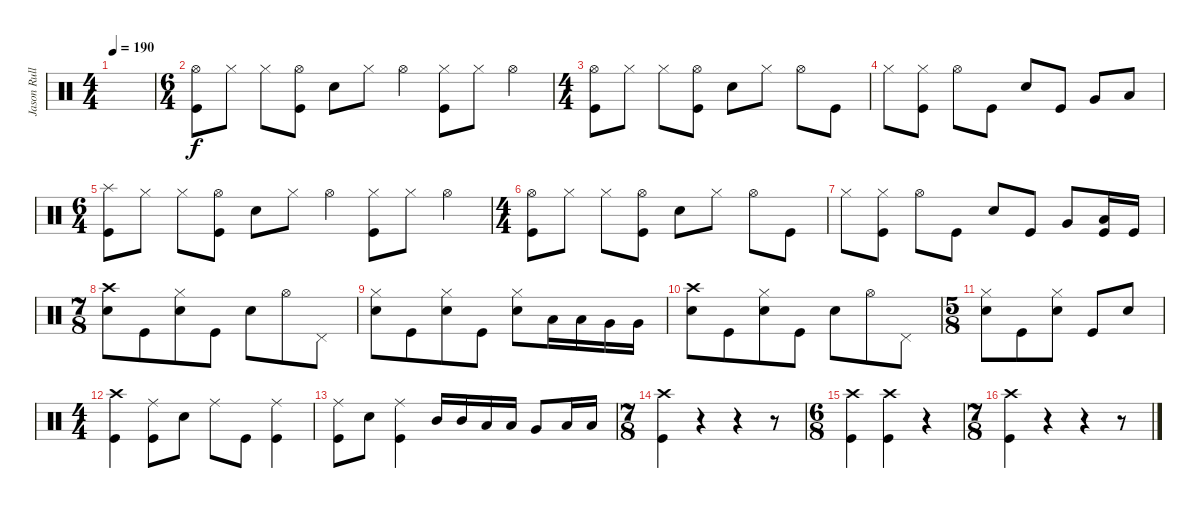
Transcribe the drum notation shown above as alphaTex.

\track ("Jason Rullo - Drums and Percussion" "Jason Rull") {instrument percussion}
\staff {score}
\articulation defaults
\ts (4 4)
\tempo 190
\clef neutral
\ks c
|
\ts (6 4)
("Hi-Hat (open)" "Kick (hit)").8 "Hi-Hat (closed)".8 "Hi-Hat (closed)".8 ("Hi-Hat (open)" "Kick (hit)").8 "Snare (hit) 2".8 "Hi-Hat (closed)".8 "Hi-Hat (open)".4 ("Hi-Hat (closed)" "Kick (hit)").8 "Hi-Hat (closed)".8 "Hi-Hat (open)".4 |
\ts (4 4)
("Hi-Hat (open)" "Kick (hit)").8 "Hi-Hat (closed)".8 "Hi-Hat (closed)".8 ("Hi-Hat (open)" "Kick (hit)").8 "Snare (hit) 2".8 "Hi-Hat (closed)".8 "Hi-Hat (open)".8 "Kick (hit)".8 |
"Hi-Hat (closed)".8 ("Kick (hit)" "Hi-Hat (closed)").8 "Hi-Hat (open)".8 "Kick (hit)".8 "Snare (hit) 2".8 "Kick (hit)".8 "Very Low Tom (hit)".8 "Low Floor Tom (hit)".8 |
\ts (6 4)
("Kick (hit)" "Splash (hit)").8 "Hi-Hat (closed)".8 "Hi-Hat (closed)".8 ("Hi-Hat (open)" "Kick (hit)").8 "Snare (hit) 2".8 "Hi-Hat (closed)".8 "Hi-Hat (open)".4 ("Hi-Hat (closed)" "Kick (hit)").8 "Hi-Hat (closed)".8 "Hi-Hat (open)".4 |
\ts (4 4)
("Hi-Hat (open)" "Kick (hit)").8 "Hi-Hat (closed)".8 "Hi-Hat (closed)".8 ("Hi-Hat (open)" "Kick (hit)").8 "Snare (hit) 2".8 "Hi-Hat (closed)".8 "Hi-Hat (open)".8 "Kick (hit)".8 |
"Hi-Hat (closed)".8 ("Kick (hit)" "Hi-Hat (closed)").8 "Hi-Hat (open)".8 "Kick (hit)".8 "Snare (hit) 2".8 "Kick (hit)".8 "Very Low Tom (hit)".8 ("Low Floor Tom (hit)" "Kick (hit)").16 "Kick (hit)".16 |
\ts (7 8)
("Snare (hit) 2" "Crash high (hit)").8 "Kick (hit)".8 ("Snare (hit) 2" "Hi-Hat (closed)").8 "Kick (hit)".8 "Snare (hit) 2".8 "Hi-Hat (open)".8 "Pedal Hi-Hat (hit)".8 |
("Snare (hit) 2" "Hi-Hat (closed)").8 "Kick (hit)".8 ("Snare (hit) 2" "Hi-Hat (closed)").8 "Kick (hit)".8 ("Snare (hit) 2" "Hi-Hat (closed)").8 "Low Tom (hit)".16 "Low Tom (hit)".16 "Very Low Tom (hit)".16 "Very Low Tom (hit)".16 |
("Snare (hit) 2" "Crash high (hit)").8 "Kick (hit)".8 ("Snare (hit) 2" "Hi-Hat (closed)").8 "Kick (hit)".8 "Snare (hit) 2".8 "Hi-Hat (open)".8 "Pedal Hi-Hat (hit)".8 |
\ts (5 8)
("Snare (hit) 2" "Hi-Hat (closed)").8 "Kick (hit)".8 ("Snare (hit) 2" "Hi-Hat (closed)").8 "Kick (hit)".8 "Snare (hit) 2".8 |
\ts (4 4)
("Kick (hit)" "Crash high (hit)").4 ("Ride (middle)" "Kick (hit)").8 "Snare (hit) 2".8 "Ride (middle)".8 "Kick (hit)".8 ("Kick (hit)" "Ride (middle)").4 |
("Kick (hit)" "Ride (middle)").8 "Snare (hit) 2".8 ("Kick (hit)" "Ride (middle)").4 "Mid Tom (hit)".16 "Mid Tom (hit)".16 "Low Tom (hit)".16 "Low Tom (hit)".16 "Very Low Tom (hit)".8 "Low Floor Tom (hit)".16 "Low Floor Tom (hit)".16 |
\ts (7 8)
("Crash high (hit)" "Kick (hit)").4 r.4 r.4 r.8 |
\ts (6 8)
("Kick (hit)" "Crash high (hit)").4 ("Kick (hit)" "Crash high (hit)").4 r.4 |
\ts (7 8)
("Crash high (hit)" "Kick (hit)").4 r.4 r.4 r.8
